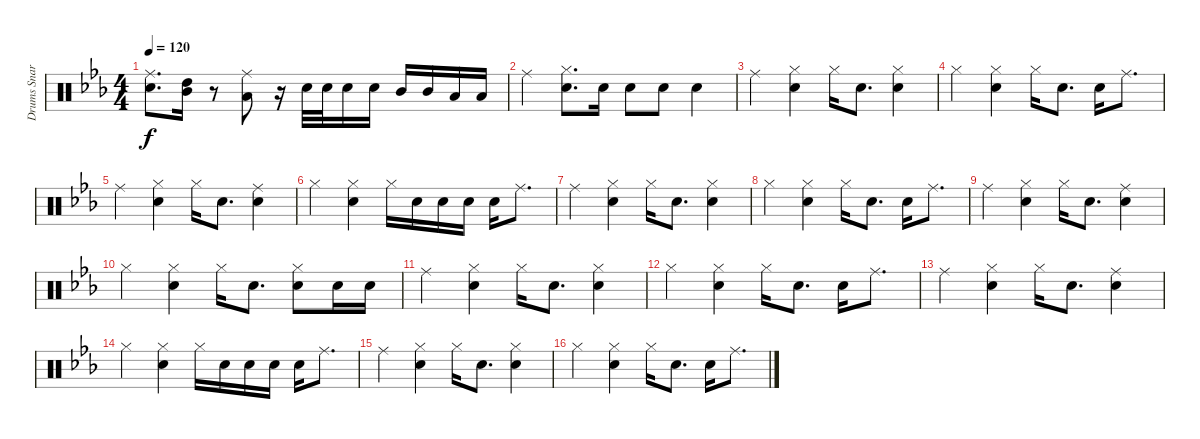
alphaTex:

\track ("Drums Snare" "Drums Snar") {instrument percussion}
\staff {score}
\articulation defaults
\ts (4 4)
\tempo 120
\clef neutral
\ks eb
("Ride (middle)" "Snare (hit) 2").8{d dy f} ("High Tom (hit)" "Mid Tom (hit)").16 r.8 ("Ride (middle)" "Low Tom (hit)").8 r.16 "Snare (hit) 2".32 "Snare (hit) 2".32 "Snare (hit) 2".16 "Snare (hit) 2".16 "Mid Tom (hit)".16 "Mid Tom (hit)".16 "Low Tom (hit)".16 "Low Tom (hit)".16 |
"Ride (middle)".4 ("Hi-Hat (closed)" "Snare (hit) 2").8{d} "Snare (hit) 2".16 "Snare (hit) 2".8 "Snare (hit) 2".8 "Snare (hit) 2".4 |
"Ride (middle)".4 ("Hi-Hat (closed)" "Snare (hit) 2").4 "Hi-Hat (closed)".16 "Snare (hit) 2".8{d} ("Hi-Hat (closed)" "Snare (hit) 2").4 |
"Hi-Hat (closed)".4 ("Hi-Hat (closed)" "Snare (hit) 2").4 "Hi-Hat (closed)".16 "Snare (hit) 2".8{d} "Snare (hit) 2".16 "Ride (middle)".8{d} |
"Ride (middle)".4 ("Hi-Hat (closed)" "Snare (hit) 2").4 "Hi-Hat (closed)".16 "Snare (hit) 2".8{d} ("Ride (middle)" "Snare (hit) 2").4 |
"Hi-Hat (closed)".4 ("Hi-Hat (closed)" "Snare (hit) 2").4 "Hi-Hat (closed)".16 "Snare (hit) 2".16 "Snare (hit) 2".16 "Snare (hit) 2".16 "Snare (hit) 2".16 "Ride (middle)".8{d} |
"Ride (middle)".4 ("Hi-Hat (closed)" "Snare (hit) 2").4 "Hi-Hat (closed)".16 "Snare (hit) 2".8{d} ("Hi-Hat (closed)" "Snare (hit) 2").4 |
"Hi-Hat (closed)".4 ("Hi-Hat (closed)" "Snare (hit) 2").4 "Hi-Hat (closed)".16 "Snare (hit) 2".8{d} "Snare (hit) 2".16 "Ride (middle)".8{d} |
"Ride (middle)".4 ("Hi-Hat (closed)" "Snare (hit) 2").4 "Hi-Hat (closed)".16 "Snare (hit) 2".8{d} ("Ride (middle)" "Snare (hit) 2").4 |
"Hi-Hat (closed)".4 ("Hi-Hat (closed)" "Snare (hit) 2").4 "Hi-Hat (closed)".16 "Snare (hit) 2".8{d} ("Hi-Hat (closed)" "Snare (hit) 2").8 "Snare (hit) 2".16 "Snare (hit) 2".16 |
"Ride (middle)".4 ("Hi-Hat (closed)" "Snare (hit) 2").4 "Hi-Hat (closed)".16 "Snare (hit) 2".8{d} ("Hi-Hat (closed)" "Snare (hit) 2").4 |
"Hi-Hat (closed)".4 ("Hi-Hat (closed)" "Snare (hit) 2").4 "Hi-Hat (closed)".16 "Snare (hit) 2".8{d} "Snare (hit) 2".16 "Ride (middle)".8{d} |
"Ride (middle)".4 ("Hi-Hat (closed)" "Snare (hit) 2").4 "Hi-Hat (closed)".16 "Snare (hit) 2".8{d} ("Ride (middle)" "Snare (hit) 2").4 |
"Hi-Hat (closed)".4 ("Hi-Hat (closed)" "Snare (hit) 2").4 "Hi-Hat (closed)".16 "Snare (hit) 2".16 "Snare (hit) 2".16 "Snare (hit) 2".16 "Snare (hit) 2".16 "Ride (middle)".8{d} |
"Ride (middle)".4 ("Hi-Hat (closed)" "Snare (hit) 2").4 "Hi-Hat (closed)".16 "Snare (hit) 2".8{d} ("Hi-Hat (closed)" "Snare (hit) 2").4 |
"Hi-Hat (closed)".4 ("Hi-Hat (closed)" "Snare (hit) 2").4 "Hi-Hat (closed)".16 "Snare (hit) 2".8{d} "Snare (hit) 2".16 "Ride (middle)".8{d}
